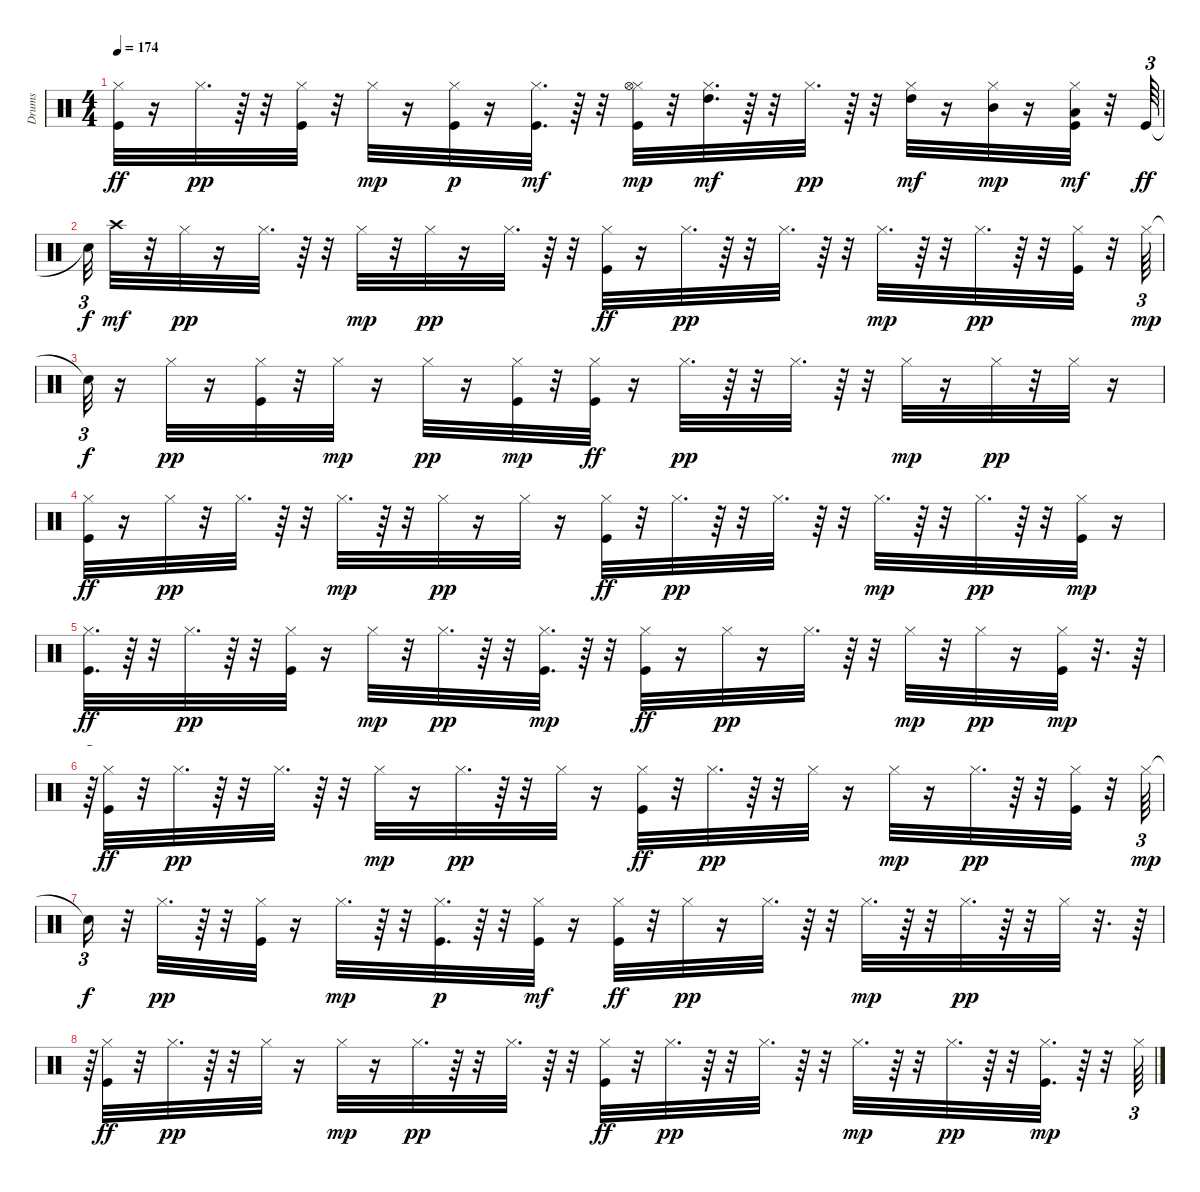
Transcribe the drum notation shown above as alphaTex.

\track ("Drums" "Drums") {instrument percussion}
\staff {score}
\articulation defaults
\ts (4 4)
\tempo 174
\clef neutral
\ks c
("Hi-Hat (closed)" "Kick (hit)").32{dy ff} r.16 "Hi-Hat (closed)".32{d dy pp} r.64 r.32 ("Hi-Hat (closed)" "Kick (hit)").32 r.32 "Hi-Hat (closed)".32{dy mp} r.16 ("Hi-Hat (closed)" "Kick (hit)").32{dy p} r.16 ("Hi-Hat (closed)" "Kick (hit)").32{d dy mf} r.64 r.32 ("Hi-Hat (closed)" "Kick (hit)" "Hi-Hat (open)").32{dy mp} r.32 ("Hi-Hat (closed)" "High Tom (hit)").32{d dy mf} r.64 r.32 "Hi-Hat (closed)".32{d dy pp} r.64 r.32 ("Hi-Hat (closed)" "High Tom (hit)").32{dy mf} r.16 ("Hi-Hat (closed)" "Mid Tom (hit)").32{dy mp} r.16 ("Low Tom (hit)" "Hi-Hat (closed)" "Kick (hit)").32{dy mf} r.32 "Kick (hit)".64{tu (3 2) dy ff} |
"Snare (hit)"{t}.32{tu (3 2) dy f} "Crash high (hit)".32{dy mf} r.32 "Hi-Hat (closed)".32{dy pp} r.16 "Hi-Hat (closed)".32{d} r.64 r.32 "Hi-Hat (closed)".32{dy mp} r.32 "Hi-Hat (closed)".32{dy pp} r.16 "Hi-Hat (closed)".32{d} r.64 r.32 ("Hi-Hat (closed)" "Kick (hit)").32{dy ff} r.16 "Hi-Hat (closed)".32{d dy pp} r.64 r.32 "Hi-Hat (closed)".32{d} r.64 r.32 "Hi-Hat (closed)".32{d dy mp} r.64 r.32 "Hi-Hat (closed)".32{d dy pp} r.64 r.32 ("Hi-Hat (closed)" "Kick (hit)").32 r.32 "Hi-Hat (closed)".64{tu (3 2) dy mp} |
"Snare (hit)"{t}.32{tu (3 2) dy f} r.16 "Hi-Hat (closed)".32{dy pp} r.16 ("Hi-Hat (closed)" "Kick (hit)").32 r.32 "Hi-Hat (closed)".32{dy mp} r.16 "Hi-Hat (closed)".32{dy pp} r.16 ("Hi-Hat (closed)" "Kick (hit)").32{dy mp} r.32 ("Hi-Hat (closed)" "Kick (hit)").32{dy ff} r.16 "Hi-Hat (closed)".32{d dy pp} r.64 r.32 "Hi-Hat (closed)".32{d} r.64 r.32 "Hi-Hat (closed)".32{dy mp} r.16 "Hi-Hat (closed)".32{dy pp} r.32 "Hi-Hat (closed)".32 r.16 |
("Hi-Hat (closed)" "Kick (hit)").32{dy ff} r.16 "Hi-Hat (closed)".32{dy pp} r.32 "Hi-Hat (closed)".32{d} r.64 r.32 "Hi-Hat (closed)".32{d dy mp} r.64 r.32 "Hi-Hat (closed)".32{dy pp} r.16 "Hi-Hat (closed)".32 r.16 ("Hi-Hat (closed)" "Kick (hit)").32{dy ff} r.32 "Hi-Hat (closed)".32{d dy pp} r.64 r.32 "Hi-Hat (closed)".32{d} r.64 r.32 "Hi-Hat (closed)".32{d dy mp} r.64 r.32 "Hi-Hat (closed)".32{d dy pp} r.64 r.32 ("Hi-Hat (closed)" "Kick (hit)").32{dy mp} r.16 |
("Hi-Hat (closed)" "Kick (hit)").32{d dy ff} r.64 r.32 "Hi-Hat (closed)".32{d dy pp} r.64 r.32 ("Hi-Hat (closed)" "Kick (hit)").32 r.16 "Hi-Hat (closed)".32{dy mp} r.32 "Hi-Hat (closed)".32{d dy pp} r.64 r.32 ("Hi-Hat (closed)" "Kick (hit)").32{d dy mp} r.64 r.32 ("Hi-Hat (closed)" "Kick (hit)").32{dy ff} r.16 "Hi-Hat (closed)".32{dy pp} r.16 "Hi-Hat (closed)".32{d} r.64 r.32 "Hi-Hat (closed)".32{dy mp} r.32 "Hi-Hat (closed)".32{dy pp} r.16 ("Hi-Hat (closed)" "Kick (hit)").32{dy mp} r.32{d} r.64 |
r.64{tu (3 2)} ("Hi-Hat (closed)" "Kick (hit)").32{dy ff} r.32 "Hi-Hat (closed)".32{d dy pp} r.64 r.32 "Hi-Hat (closed)".32{d} r.64 r.32 "Hi-Hat (closed)".32{dy mp} r.16 "Hi-Hat (closed)".32{d dy pp} r.64 r.32 "Hi-Hat (closed)".32 r.16 ("Hi-Hat (closed)" "Kick (hit)").32{dy ff} r.32 "Hi-Hat (closed)".32{d dy pp} r.64 r.32 "Hi-Hat (closed)".32 r.16 "Hi-Hat (closed)".32{dy mp} r.16 "Hi-Hat (closed)".32{d dy pp} r.64 r.32 ("Hi-Hat (closed)" "Kick (hit)").32 r.32 "Hi-Hat (closed)".64{tu (3 2) dy mp} |
"Snare (hit)"{t}.16{tu (3 2) dy f} r.32 "Hi-Hat (closed)".32{d dy pp} r.64 r.32 ("Hi-Hat (closed)" "Kick (hit)").32 r.16 "Hi-Hat (closed)".32{d dy mp} r.64 r.32 ("Hi-Hat (closed)" "Kick (hit)").32{d dy p} r.64 r.32 ("Hi-Hat (closed)" "Kick (hit)").32{dy mf} r.16 ("Hi-Hat (closed)" "Kick (hit)").32{dy ff} r.32 "Hi-Hat (closed)".32{dy pp} r.16 "Hi-Hat (closed)".32{d} r.64 r.32 "Hi-Hat (closed)".32{d dy mp} r.64 r.32 "Hi-Hat (closed)".32{d dy pp} r.64 r.32 "Hi-Hat (closed)".32 r.32{d} r.64 |
r.64{tu (3 2)} ("Hi-Hat (closed)" "Kick (hit)").32{dy ff} r.32 "Hi-Hat (closed)".32{d dy pp} r.64 r.32 "Hi-Hat (closed)".32 r.16 "Hi-Hat (closed)".32{dy mp} r.16 "Hi-Hat (closed)".32{d dy pp} r.64 r.32 "Hi-Hat (closed)".32{d} r.64 r.32 ("Hi-Hat (closed)" "Kick (hit)").32{dy ff} r.32 "Hi-Hat (closed)".32{d dy pp} r.64 r.32 "Hi-Hat (closed)".32{d} r.64 r.32 "Hi-Hat (closed)".32{d dy mp} r.64 r.32 "Hi-Hat (closed)".32{d dy pp} r.64 r.32 ("Hi-Hat (closed)" "Kick (hit)").32{d dy mp} r.64 r.32 "Hi-Hat (closed)".64{tu (3 2)}
